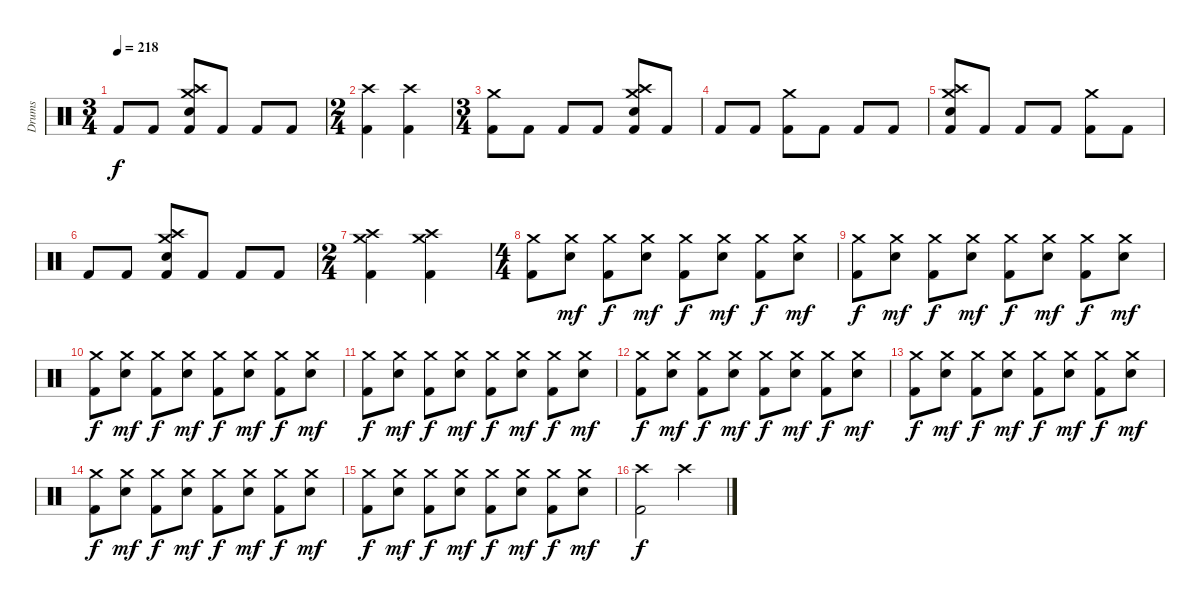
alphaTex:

\track ("Drums" "Drums") {instrument percussion}
\staff {score}
\articulation defaults
\ts (3 4)
\tempo 218
\clef neutral
\ks c "Kick (hit) 2".8{dy f} "Kick (hit) 2".8
("Crash high (hit)" "Crash medium (hit)" "Electric Snare (hit)" "Kick (hit) 2").8 "Kick (hit) 2".8 "Kick (hit) 2".8 "Kick (hit) 2".8 |
\ts (2 4)
("Crash high (hit)" "Kick (hit) 2").4 ("Crash high (hit)" "Kick (hit) 2").4 |
\ts (3 4)
("Crash medium (hit)" "Kick (hit) 2").8 "Kick (hit) 2".8 "Kick (hit) 2".8 "Kick (hit) 2".8 ("Crash high (hit)" "Crash medium (hit)" "Electric Snare (hit)" "Kick (hit) 2").8 "Kick (hit) 2".8 |
"Kick (hit) 2".8 "Kick (hit) 2".8 ("Crash medium (hit)" "Kick (hit) 2").8 "Kick (hit) 2".8 "Kick (hit) 2".8 "Kick (hit) 2".8 |
("Crash high (hit)" "Crash medium (hit)" "Electric Snare (hit)" "Kick (hit) 2").8 "Kick (hit) 2".8 "Kick (hit) 2".8 "Kick (hit) 2".8 ("Crash medium (hit)" "Kick (hit) 2").8 "Kick (hit) 2".8 |
"Kick (hit) 2".8 "Kick (hit) 2".8 ("Crash high (hit)" "Crash medium (hit)" "Electric Snare (hit)" "Kick (hit) 2").8 "Kick (hit) 2".8 "Kick (hit) 2".8 "Kick (hit) 2".8 |
\ts (2 4)
("Crash high (hit)" "Crash medium (hit)" "Kick (hit) 2").4 ("Crash high (hit)" "Crash medium (hit)" "Kick (hit) 2").4 |
\ts (4 4)
("Crash medium (hit)" "Kick (hit) 2").8 ("Crash medium (hit)" "Electric Snare (hit)").8{dy mf} ("Crash medium (hit)" "Kick (hit) 2").8{dy f} ("Crash medium (hit)" "Electric Snare (hit)").8{dy mf} ("Crash medium (hit)" "Kick (hit) 2").8{dy f} ("Crash medium (hit)" "Electric Snare (hit)").8{dy mf} ("Crash medium (hit)" "Kick (hit) 2").8{dy f} ("Crash medium (hit)" "Electric Snare (hit)").8{dy mf} |
("Crash medium (hit)" "Kick (hit) 2").8{dy f} ("Crash medium (hit)" "Electric Snare (hit)").8{dy mf} ("Crash medium (hit)" "Kick (hit) 2").8{dy f} ("Crash medium (hit)" "Electric Snare (hit)").8{dy mf} ("Crash medium (hit)" "Kick (hit) 2").8{dy f} ("Crash medium (hit)" "Electric Snare (hit)").8{dy mf} ("Crash medium (hit)" "Kick (hit) 2").8{dy f} ("Crash medium (hit)" "Electric Snare (hit)").8{dy mf} |
("Crash medium (hit)" "Kick (hit) 2").8{dy f} ("Crash medium (hit)" "Electric Snare (hit)").8{dy mf} ("Crash medium (hit)" "Kick (hit) 2").8{dy f} ("Crash medium (hit)" "Electric Snare (hit)").8{dy mf} ("Crash medium (hit)" "Kick (hit) 2").8{dy f} ("Crash medium (hit)" "Electric Snare (hit)").8{dy mf} ("Crash medium (hit)" "Kick (hit) 2").8{dy f} ("Crash medium (hit)" "Electric Snare (hit)").8{dy mf} |
("Crash medium (hit)" "Kick (hit) 2").8{dy f} ("Crash medium (hit)" "Electric Snare (hit)").8{dy mf} ("Crash medium (hit)" "Kick (hit) 2").8{dy f} ("Crash medium (hit)" "Electric Snare (hit)").8{dy mf} ("Crash medium (hit)" "Kick (hit) 2").8{dy f} ("Crash medium (hit)" "Electric Snare (hit)").8{dy mf} ("Crash medium (hit)" "Kick (hit) 2").8{dy f} ("Crash medium (hit)" "Electric Snare (hit)").8{dy mf} |
("Crash medium (hit)" "Kick (hit) 2").8{dy f} ("Crash medium (hit)" "Electric Snare (hit)").8{dy mf} ("Crash medium (hit)" "Kick (hit) 2").8{dy f} ("Crash medium (hit)" "Electric Snare (hit)").8{dy mf} ("Crash medium (hit)" "Kick (hit) 2").8{dy f} ("Crash medium (hit)" "Electric Snare (hit)").8{dy mf} ("Crash medium (hit)" "Kick (hit) 2").8{dy f} ("Crash medium (hit)" "Electric Snare (hit)").8{dy mf} |
("Crash medium (hit)" "Kick (hit) 2").8{dy f} ("Crash medium (hit)" "Electric Snare (hit)").8{dy mf} ("Crash medium (hit)" "Kick (hit) 2").8{dy f} ("Crash medium (hit)" "Electric Snare (hit)").8{dy mf} ("Crash medium (hit)" "Kick (hit) 2").8{dy f} ("Crash medium (hit)" "Electric Snare (hit)").8{dy mf} ("Crash medium (hit)" "Kick (hit) 2").8{dy f} ("Crash medium (hit)" "Electric Snare (hit)").8{dy mf} |
("Crash medium (hit)" "Kick (hit) 2").8{dy f} ("Crash medium (hit)" "Electric Snare (hit)").8{dy mf} ("Crash medium (hit)" "Kick (hit) 2").8{dy f} ("Crash medium (hit)" "Electric Snare (hit)").8{dy mf} ("Crash medium (hit)" "Kick (hit) 2").8{dy f} ("Crash medium (hit)" "Electric Snare (hit)").8{dy mf} ("Crash medium (hit)" "Kick (hit) 2").8{dy f} ("Crash medium (hit)" "Electric Snare (hit)").8{dy mf} |
("Crash medium (hit)" "Kick (hit) 2").8{dy f} ("Crash medium (hit)" "Electric Snare (hit)").8{dy mf} ("Crash medium (hit)" "Kick (hit) 2").8{dy f} ("Crash medium (hit)" "Electric Snare (hit)").8{dy mf} ("Crash medium (hit)" "Kick (hit) 2").8{dy f} ("Crash medium (hit)" "Electric Snare (hit)").8{dy mf} ("Crash medium (hit)" "Kick (hit) 2").8{dy f} ("Crash medium (hit)" "Electric Snare (hit)").8{dy mf} |
("Crash high (hit)" "Kick (hit) 2").2{dy f} "Crash high (hit)".2
